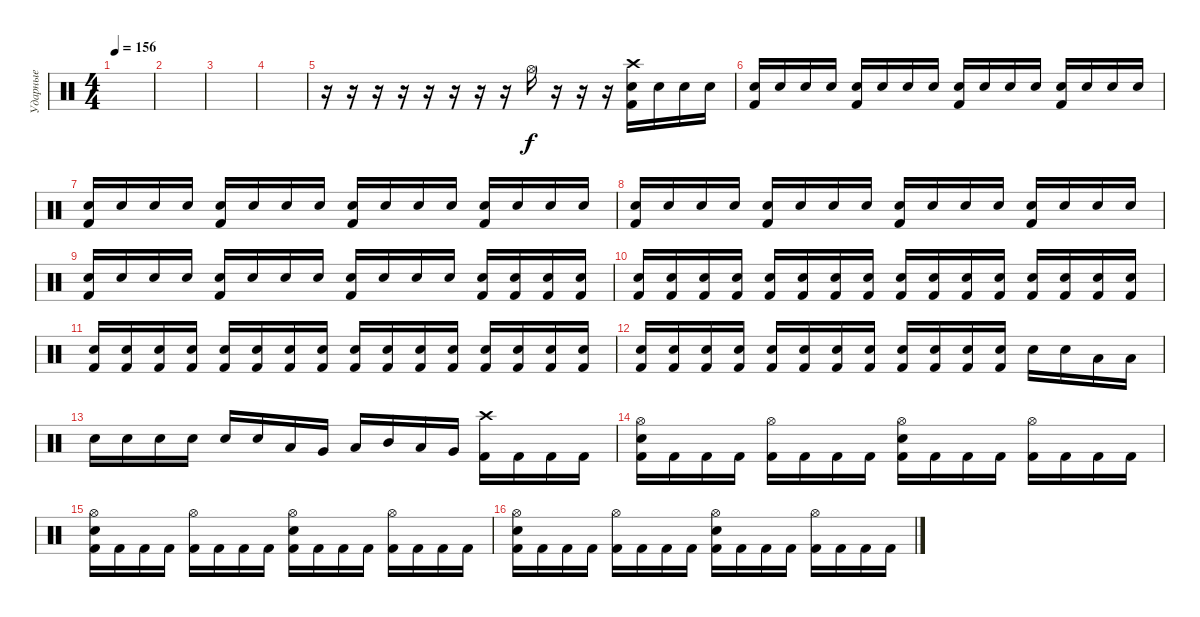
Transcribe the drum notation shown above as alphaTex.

\track ("Ударные" "Ударные") {instrument percussion}
\staff {score}
\articulation defaults
\ts (4 4)
\tempo 156
\clef neutral
\ks c
|
|
|
|
r.16 r.16 r.16 r.16 r.16 r.16 r.16 r.16 "Hi-Hat (open)".16 r.16 r.16 r.16 ("Kick (hit) 2" "Electric Snare (hit)" "Crash high (hit)").16 "Electric Snare (hit)".16 "Electric Snare (hit)".16 "Electric Snare (hit)".16 |
("Kick (hit) 2" "Electric Snare (hit)").16 "Electric Snare (hit)".16 "Electric Snare (hit)".16 "Electric Snare (hit)".16 ("Kick (hit) 2" "Electric Snare (hit)").16 "Electric Snare (hit)".16 "Electric Snare (hit)".16 "Electric Snare (hit)".16 ("Kick (hit) 2" "Electric Snare (hit)").16 "Electric Snare (hit)".16 "Electric Snare (hit)".16 "Electric Snare (hit)".16 ("Kick (hit) 2" "Electric Snare (hit)").16 "Electric Snare (hit)".16 "Electric Snare (hit)".16 "Electric Snare (hit)".16 |
("Kick (hit) 2" "Electric Snare (hit)").16 "Electric Snare (hit)".16 "Electric Snare (hit)".16 "Electric Snare (hit)".16 ("Kick (hit) 2" "Electric Snare (hit)").16 "Electric Snare (hit)".16 "Electric Snare (hit)".16 "Electric Snare (hit)".16 ("Kick (hit) 2" "Electric Snare (hit)").16 "Electric Snare (hit)".16 "Electric Snare (hit)".16 "Electric Snare (hit)".16 ("Kick (hit) 2" "Electric Snare (hit)").16 "Electric Snare (hit)".16 "Electric Snare (hit)".16 "Electric Snare (hit)".16 |
("Kick (hit) 2" "Electric Snare (hit)").16 "Electric Snare (hit)".16 "Electric Snare (hit)".16 "Electric Snare (hit)".16 ("Kick (hit) 2" "Electric Snare (hit)").16 "Electric Snare (hit)".16 "Electric Snare (hit)".16 "Electric Snare (hit)".16 ("Kick (hit) 2" "Electric Snare (hit)").16 "Electric Snare (hit)".16 "Electric Snare (hit)".16 "Electric Snare (hit)".16 ("Kick (hit) 2" "Electric Snare (hit)").16 "Electric Snare (hit)".16 "Electric Snare (hit)".16 "Electric Snare (hit)".16 |
("Kick (hit) 2" "Electric Snare (hit)").16 "Electric Snare (hit)".16 "Electric Snare (hit)".16 "Electric Snare (hit)".16 ("Kick (hit) 2" "Electric Snare (hit)").16 "Electric Snare (hit)".16 "Electric Snare (hit)".16 "Electric Snare (hit)".16 ("Kick (hit) 2" "Electric Snare (hit)").16 "Electric Snare (hit)".16 "Electric Snare (hit)".16 "Electric Snare (hit)".16 ("Kick (hit) 2" "Electric Snare (hit)").16 ("Kick (hit) 2" "Electric Snare (hit)").16 ("Kick (hit) 2" "Electric Snare (hit)").16 ("Kick (hit) 2" "Electric Snare (hit)").16 |
("Kick (hit) 2" "Electric Snare (hit)").16 ("Kick (hit) 2" "Electric Snare (hit)").16 ("Kick (hit) 2" "Electric Snare (hit)").16 ("Kick (hit) 2" "Electric Snare (hit)").16 ("Kick (hit) 2" "Electric Snare (hit)").16 ("Kick (hit) 2" "Electric Snare (hit)").16 ("Kick (hit) 2" "Electric Snare (hit)").16 ("Kick (hit) 2" "Electric Snare (hit)").16 ("Kick (hit) 2" "Electric Snare (hit)").16 ("Kick (hit) 2" "Electric Snare (hit)").16 ("Kick (hit) 2" "Electric Snare (hit)").16 ("Kick (hit) 2" "Electric Snare (hit)").16 ("Kick (hit) 2" "Electric Snare (hit)").16 ("Kick (hit) 2" "Electric Snare (hit)").16 ("Kick (hit) 2" "Electric Snare (hit)").16 ("Kick (hit) 2" "Electric Snare (hit)").16 |
("Kick (hit) 2" "Electric Snare (hit)").16 ("Kick (hit) 2" "Electric Snare (hit)").16 ("Kick (hit) 2" "Electric Snare (hit)").16 ("Kick (hit) 2" "Electric Snare (hit)").16 ("Kick (hit) 2" "Electric Snare (hit)").16 ("Kick (hit) 2" "Electric Snare (hit)").16 ("Kick (hit) 2" "Electric Snare (hit)").16 ("Kick (hit) 2" "Electric Snare (hit)").16 ("Kick (hit) 2" "Electric Snare (hit)").16 ("Kick (hit) 2" "Electric Snare (hit)").16 ("Kick (hit) 2" "Electric Snare (hit)").16 ("Kick (hit) 2" "Electric Snare (hit)").16 ("Kick (hit) 2" "Electric Snare (hit)").16 ("Kick (hit) 2" "Electric Snare (hit)").16 ("Kick (hit) 2" "Electric Snare (hit)").16 ("Kick (hit) 2" "Electric Snare (hit)").16 |
("Kick (hit) 2" "Electric Snare (hit)").16 ("Kick (hit) 2" "Electric Snare (hit)").16 ("Kick (hit) 2" "Electric Snare (hit)").16 ("Kick (hit) 2" "Electric Snare (hit)").16 ("Kick (hit) 2" "Electric Snare (hit)").16 ("Kick (hit) 2" "Electric Snare (hit)").16 ("Kick (hit) 2" "Electric Snare (hit)").16 ("Kick (hit) 2" "Electric Snare (hit)").16 ("Kick (hit) 2" "Electric Snare (hit)").16 ("Kick (hit) 2" "Electric Snare (hit)").16 ("Kick (hit) 2" "Electric Snare (hit)").16 ("Kick (hit) 2" "Electric Snare (hit)").16 "Electric Snare (hit)".16 "Electric Snare (hit)".16 "Low Tom (hit)".16 "Low Tom (hit)".16 |
"Electric Snare (hit)".16 "Electric Snare (hit)".16 "Snare (hit) 2".16 "Electric Snare (hit)".16 "Snare (hit) 2".16 "Electric Snare (hit)".16 "Low Tom (hit)".16 "Very Low Tom (hit)".16 "Low Tom (hit)".16 "Mid Tom (hit)".16 "Low Tom (hit)".16 "Very Low Tom (hit)".16 ("Kick (hit) 2" "Crash high (hit)").16 "Kick (hit) 2".16 "Kick (hit) 2".16 "Kick (hit) 2".16 |
("Kick (hit) 2" "Electric Snare (hit)" "Hi-Hat (open)").16 "Kick (hit) 2".16 "Kick (hit) 2".16 "Kick (hit) 2".16 ("Kick (hit) 2" "Hi-Hat (open)").16 "Kick (hit) 2".16 "Kick (hit) 2".16 "Kick (hit) 2".16 ("Kick (hit) 2" "Electric Snare (hit)" "Hi-Hat (open)").16 "Kick (hit) 2".16 "Kick (hit) 2".16 "Kick (hit) 2".16 ("Kick (hit) 2" "Hi-Hat (open)").16 "Kick (hit) 2".16 "Kick (hit) 2".16 "Kick (hit) 2".16 |
("Kick (hit) 2" "Electric Snare (hit)" "Hi-Hat (open)").16 "Kick (hit) 2".16 "Kick (hit) 2".16 "Kick (hit) 2".16 ("Kick (hit) 2" "Hi-Hat (open)").16 "Kick (hit) 2".16 "Kick (hit) 2".16 "Kick (hit) 2".16 ("Kick (hit) 2" "Electric Snare (hit)" "Hi-Hat (open)").16 "Kick (hit) 2".16 "Kick (hit) 2".16 "Kick (hit) 2".16 ("Kick (hit) 2" "Hi-Hat (open)").16 "Kick (hit) 2".16 "Kick (hit) 2".16 "Kick (hit) 2".16 |
("Kick (hit) 2" "Electric Snare (hit)" "Hi-Hat (open)").16 "Kick (hit) 2".16 "Kick (hit) 2".16 "Kick (hit) 2".16 ("Kick (hit) 2" "Hi-Hat (open)").16 "Kick (hit) 2".16 "Kick (hit) 2".16 "Kick (hit) 2".16 ("Kick (hit) 2" "Electric Snare (hit)" "Hi-Hat (open)").16 "Kick (hit) 2".16 "Kick (hit) 2".16 "Kick (hit) 2".16 ("Kick (hit) 2" "Hi-Hat (open)").16 "Kick (hit) 2".16 "Kick (hit) 2".16 "Kick (hit) 2".16
